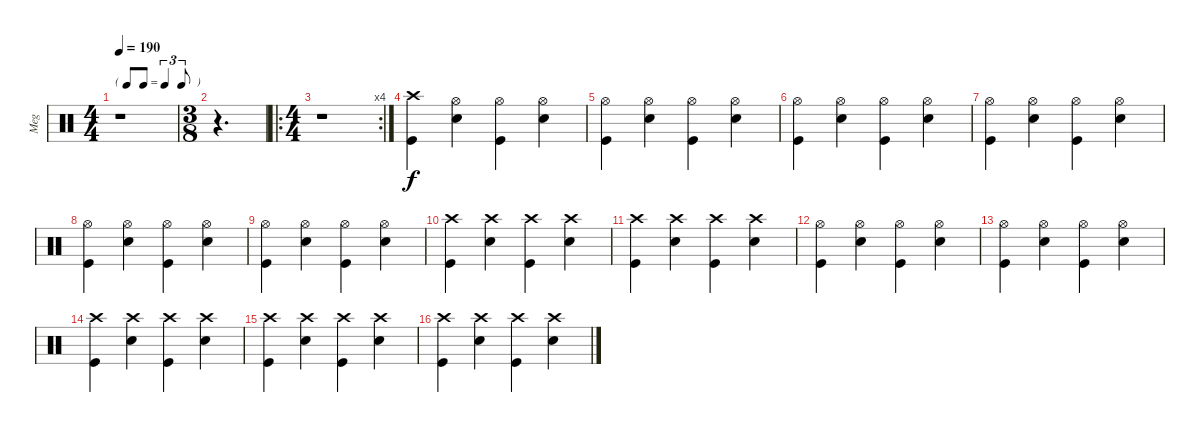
\track ("Meg" "Meg") {instrument percussion}
\staff {score}
\articulation defaults
\ts (4 4)
\tf triplet8th
\tempo 190
\clef neutral
\ks c
r.1{dy f} |
\ts (3 8)
r.4{d} |
\ro
\rc 4
\ts (4 4)
r.1 |
("Crash high (hit)" "Kick (hit)").4 ("Hi-Hat (open)" "Electric Snare (hit)").4 ("Hi-Hat (open)" "Kick (hit)").4 ("Hi-Hat (open)" "Electric Snare (hit)").4 |
("Hi-Hat (open)" "Kick (hit)").4 ("Hi-Hat (open)" "Electric Snare (hit)").4 ("Hi-Hat (open)" "Kick (hit)").4 ("Hi-Hat (open)" "Electric Snare (hit)").4 |
("Hi-Hat (open)" "Kick (hit)").4 ("Hi-Hat (open)" "Electric Snare (hit)").4 ("Hi-Hat (open)" "Kick (hit)").4 ("Hi-Hat (open)" "Electric Snare (hit)").4 |
("Hi-Hat (open)" "Kick (hit)").4 ("Hi-Hat (open)" "Electric Snare (hit)").4 ("Hi-Hat (open)" "Kick (hit)").4 ("Hi-Hat (open)" "Electric Snare (hit)").4 |
("Hi-Hat (open)" "Kick (hit)").4 ("Hi-Hat (open)" "Electric Snare (hit)").4 ("Hi-Hat (open)" "Kick (hit)").4 ("Hi-Hat (open)" "Electric Snare (hit)").4 |
("Hi-Hat (open)" "Kick (hit)").4 ("Hi-Hat (open)" "Electric Snare (hit)").4 ("Hi-Hat (open)" "Kick (hit)").4 ("Hi-Hat (open)" "Electric Snare (hit)").4 |
("Crash high (hit)" "Kick (hit)").4 ("Crash high (hit)" "Electric Snare (hit)").4 ("Crash high (hit)" "Kick (hit)").4 ("Crash high (hit)" "Electric Snare (hit)").4 |
("Crash high (hit)" "Kick (hit)").4 ("Crash high (hit)" "Electric Snare (hit)").4 ("Crash high (hit)" "Kick (hit)").4 ("Crash high (hit)" "Electric Snare (hit)").4 |
("Hi-Hat (open)" "Kick (hit)").4 ("Hi-Hat (open)" "Electric Snare (hit)").4 ("Hi-Hat (open)" "Kick (hit)").4 ("Hi-Hat (open)" "Electric Snare (hit)").4 |
("Hi-Hat (open)" "Kick (hit)").4 ("Hi-Hat (open)" "Electric Snare (hit)").4 ("Hi-Hat (open)" "Kick (hit)").4 ("Hi-Hat (open)" "Electric Snare (hit)").4 |
("Crash high (hit)" "Kick (hit)").4 ("Crash high (hit)" "Electric Snare (hit)").4 ("Crash high (hit)" "Kick (hit)").4 ("Crash high (hit)" "Electric Snare (hit)").4 |
("Crash high (hit)" "Kick (hit)").4 ("Crash high (hit)" "Electric Snare (hit)").4 ("Crash high (hit)" "Kick (hit)").4 ("Crash high (hit)" "Electric Snare (hit)").4 |
("Crash high (hit)" "Kick (hit)").4 ("Crash high (hit)" "Electric Snare (hit)").4 ("Crash high (hit)" "Kick (hit)").4 ("Crash high (hit)" "Electric Snare (hit)").4
